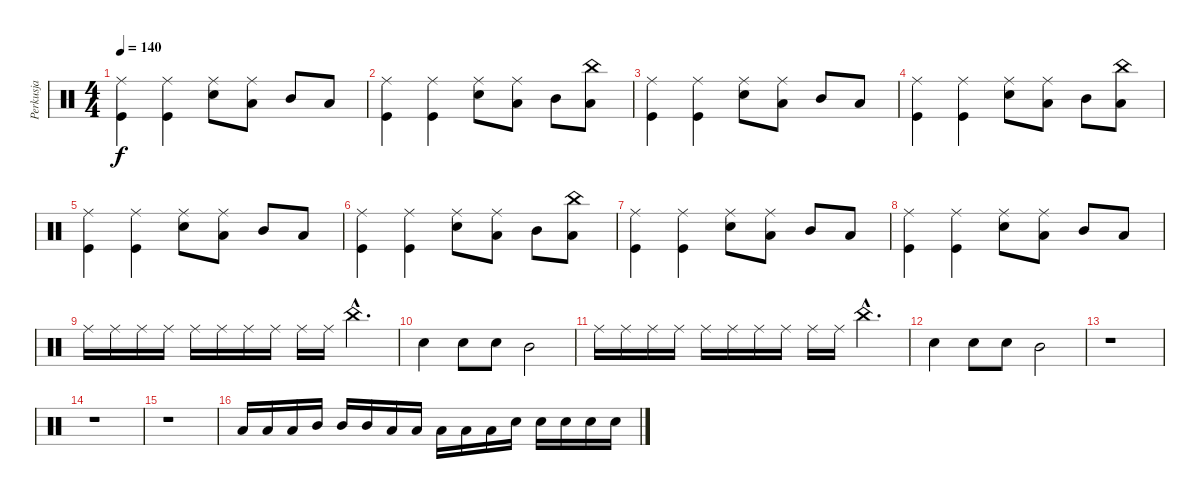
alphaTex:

\track ("Perkusja" "Perkusja") {instrument percussion}
\staff {score}
\articulation defaults
\ts (4 4)
\tempo 140
\clef neutral
\ks c
("Ride (middle)" "Kick (hit)").4{dy f} ("Ride (middle)" "Kick (hit)").4 ("Ride (middle)" "Snare (hit) 2").8 ("Ride (middle)" "Low Tom (hit)").8 "Mid Tom (hit)".8 "Low Floor Tom (hit)".8 |
("Ride (middle)" "Kick (hit)").4 ("Ride (middle)" "Kick (hit)").4 ("Ride (middle)" "Snare (hit) 2").8 ("Ride (middle)" "Low Tom (hit)").8 "Mid Tom (hit)".8 ("China (hit)" "Low Floor Tom (hit)").8 |
("Ride (middle)" "Kick (hit)").4 ("Ride (middle)" "Kick (hit)").4 ("Ride (middle)" "Snare (hit) 2").8 ("Ride (middle)" "Low Tom (hit)").8 "Mid Tom (hit)".8 "Low Floor Tom (hit)".8 |
("Ride (middle)" "Kick (hit)").4 ("Ride (middle)" "Kick (hit)").4 ("Ride (middle)" "Snare (hit) 2").8 ("Ride (middle)" "Low Tom (hit)").8 "Mid Tom (hit)".8 ("China (hit)" "Low Floor Tom (hit)").8 |
("Ride (middle)" "Kick (hit)").4 ("Ride (middle)" "Kick (hit)").4 ("Ride (middle)" "Snare (hit) 2").8 ("Ride (middle)" "Low Tom (hit)").8 "Mid Tom (hit)".8 "Low Floor Tom (hit)".8 |
("Ride (middle)" "Kick (hit)").4 ("Ride (middle)" "Kick (hit)").4 ("Ride (middle)" "Snare (hit) 2").8 ("Ride (middle)" "Low Tom (hit)").8 "Mid Tom (hit)".8 ("China (hit)" "Low Floor Tom (hit)").8 |
("Ride (middle)" "Kick (hit)").4 ("Ride (middle)" "Kick (hit)").4 ("Ride (middle)" "Snare (hit) 2").8 ("Ride (middle)" "Low Tom (hit)").8 "Mid Tom (hit)".8 "Low Floor Tom (hit)".8 |
("Ride (middle)" "Kick (hit)").4 ("Ride (middle)" "Kick (hit)").4 ("Ride (middle)" "Snare (hit) 2").8 ("Ride (middle)" "Low Tom (hit)").8 "Mid Tom (hit)".8 "Low Floor Tom (hit)".8 |
"Ride (middle)".16 "Ride (middle)".16 "Ride (middle)".16 "Ride (middle)".16 "Ride (middle)".16 "Ride (middle)".16 "Ride (middle)".16 "Ride (middle)".16 "Ride (middle)".16 "Ride (middle)".16 "China (hit)"{hac}.4{d} |
"Snare (hit) 2".4 "Snare (hit) 2".8 "Snare (hit) 2".8 "Mid Tom (hit)".2 |
"Ride (middle)".16 "Ride (middle)".16 "Ride (middle)".16 "Ride (middle)".16 "Ride (middle)".16 "Ride (middle)".16 "Ride (middle)".16 "Ride (middle)".16 "Ride (middle)".16 "Ride (middle)".16 "China (hit)"{hac}.4{d} |
"Snare (hit) 2".4 "Snare (hit) 2".8 "Snare (hit) 2".8 "Mid Tom (hit)".2 |
r.1 |
r.1 |
r.1 |
"Low Tom (hit)".16 "Low Tom (hit)".16 "Low Tom (hit)".16 "Mid Tom (hit)".16 "Mid Tom (hit)".16 "Mid Tom (hit)".16 "Low Floor Tom (hit)".16 "Low Floor Tom (hit)".16 "Low Floor Tom (hit)".16 "Low Floor Tom (hit)".16 "Low Floor Tom (hit)".16 "Snare (hit) 2".16 "Snare (hit) 2".16 "Snare (hit) 2".16 "Snare (hit) 2".16 "Snare (hit) 2".16
